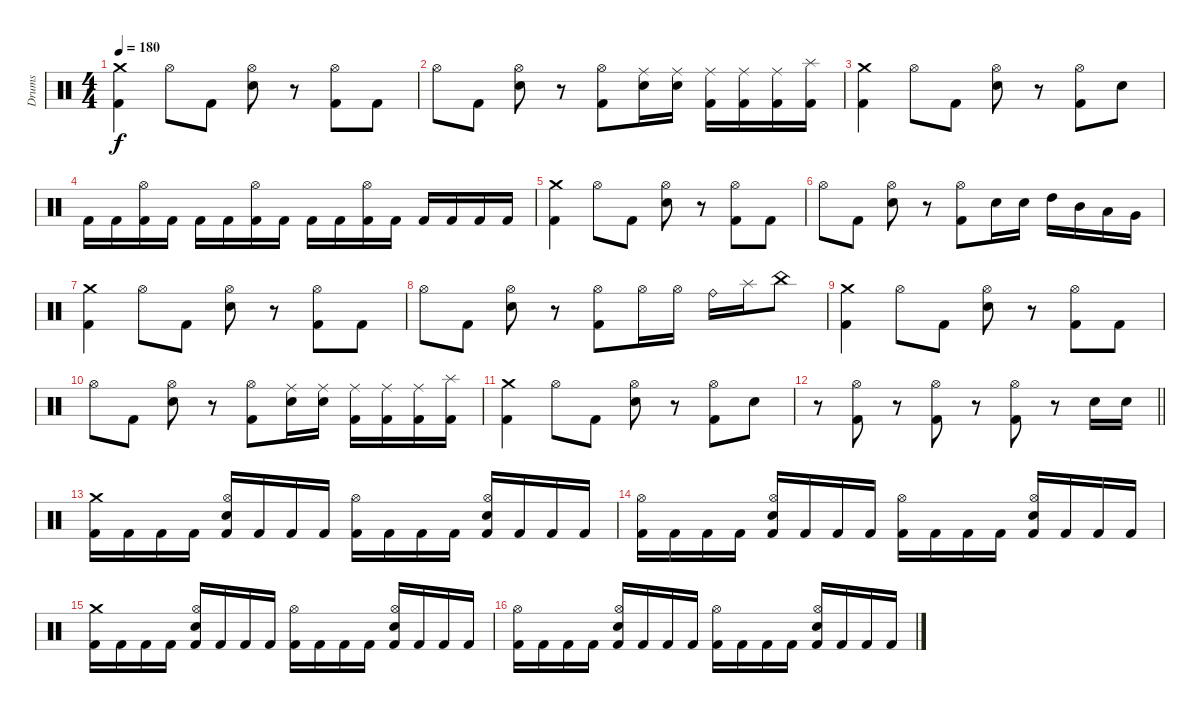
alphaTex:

\track ("Drums" "Drums") {instrument percussion}
\staff {score}
\articulation defaults
\ts (4 4)
\tempo 180
\clef neutral
\ks c
("Crash medium (hit)" "Kick (hit) 2").4{dy f} "Hi-Hat (open)".8 "Kick (hit) 2".8 ("Hi-Hat (open)" "Electric Snare (hit)").8 r.8 ("Hi-Hat (open)" "Kick (hit) 2").8 "Kick (hit) 2".8 |
"Hi-Hat (open)".8 "Kick (hit) 2".8 ("Hi-Hat (open)" "Electric Snare (hit)").8 r.8 ("Hi-Hat (open)" "Kick (hit) 2").8 ("Ride (middle)" "Electric Snare (hit)").16 ("Ride (middle)" "Electric Snare (hit)").16 ("Ride (middle)" "Kick (hit) 2").16 ("Ride (middle)" "Kick (hit) 2").16 ("Ride (middle)" "Kick (hit) 2").16 ("Splash (hit)" "Kick (hit) 2").16 |
("Crash medium (hit)" "Kick (hit) 2").4 "Hi-Hat (open)".8 "Kick (hit) 2".8 ("Hi-Hat (open)" "Electric Snare (hit)").8 r.8 ("Hi-Hat (open)" "Kick (hit) 2").8 "Electric Snare (hit)".8 |
"Kick (hit) 2".16 "Kick (hit) 2".16 ("Hi-Hat (open)" "Kick (hit) 2").16 "Kick (hit) 2".16 "Kick (hit) 2".16 "Kick (hit) 2".16 ("Hi-Hat (open)" "Kick (hit) 2").16 "Kick (hit) 2".16 "Kick (hit) 2".16 "Kick (hit) 2".16 ("Hi-Hat (open)" "Kick (hit) 2").16 "Kick (hit) 2".16 "Kick (hit) 2".16 "Kick (hit) 2".16 "Kick (hit) 2".16 "Kick (hit) 2".16 |
("Crash medium (hit)" "Kick (hit) 2").4 "Hi-Hat (open)".8 "Kick (hit) 2".8 ("Hi-Hat (open)" "Electric Snare (hit)").8 r.8 ("Hi-Hat (open)" "Kick (hit) 2").8 "Kick (hit) 2".8 |
"Hi-Hat (open)".8 "Kick (hit) 2".8 ("Hi-Hat (open)" "Electric Snare (hit)").8 r.8 ("Hi-Hat (open)" "Kick (hit) 2").8 "Electric Snare (hit)".16 "Electric Snare (hit)".16 "High Tom (hit)".16 "Mid Tom (hit)".16 "Low Tom (hit)".16 "Very Low Tom (hit)".16 |
("Crash medium (hit)" "Kick (hit) 2").4 "Hi-Hat (open)".8 "Kick (hit) 2".8 ("Hi-Hat (open)" "Electric Snare (hit)").8 r.8 ("Hi-Hat (open)" "Kick (hit) 2").8 "Kick (hit) 2".8 |
"Hi-Hat (open)".8 "Kick (hit) 2".8 ("Hi-Hat (open)" "Electric Snare (hit)").8 r.8 ("Hi-Hat (open)" "Kick (hit) 2").8 "Hi-Hat (open)".16 "Hi-Hat (open)".16 "Ride (bell)".16 "Splash (hit)".16 "China (hit)".8 |
("Crash medium (hit)" "Kick (hit) 2").4 "Hi-Hat (open)".8 "Kick (hit) 2".8 ("Hi-Hat (open)" "Electric Snare (hit)").8 r.8 ("Hi-Hat (open)" "Kick (hit) 2").8 "Kick (hit) 2".8 |
"Hi-Hat (open)".8 "Kick (hit) 2".8 ("Hi-Hat (open)" "Electric Snare (hit)").8 r.8 ("Hi-Hat (open)" "Kick (hit) 2").8 ("Ride (middle)" "Electric Snare (hit)").16 ("Ride (middle)" "Electric Snare (hit)").16 ("Ride (middle)" "Kick (hit) 2").16 ("Ride (middle)" "Kick (hit) 2").16 ("Ride (middle)" "Kick (hit) 2").16 ("Splash (hit)" "Kick (hit) 2").16 |
("Crash medium (hit)" "Kick (hit) 2").4 "Hi-Hat (open)".8 "Kick (hit) 2".8 ("Hi-Hat (open)" "Electric Snare (hit)").8 r.8 ("Hi-Hat (open)" "Kick (hit) 2").8 "Electric Snare (hit)".8 |
\barLineRight lightlight
r.8 ("Hi-Hat (open)" "Kick (hit) 2").8 r.8 ("Hi-Hat (open)" "Kick (hit) 2").8 r.8 ("Hi-Hat (open)" "Kick (hit) 2").8 r.8 "Electric Snare (hit)".16 "Electric Snare (hit)".16 |
\section ("" "")
("Crash medium (hit)" "Kick (hit) 2").16 "Kick (hit) 2".16 "Kick (hit) 2".16 "Kick (hit) 2".16 ("Hi-Hat (open)" "Electric Snare (hit)" "Kick (hit) 2").16 "Kick (hit) 2".16 "Kick (hit) 2".16 "Kick (hit) 2".16 ("Hi-Hat (open)" "Kick (hit) 2").16 "Kick (hit) 2".16 "Kick (hit) 2".16 "Kick (hit) 2".16 ("Hi-Hat (open)" "Electric Snare (hit)" "Kick (hit) 2").16 "Kick (hit) 2".16 "Kick (hit) 2".16 "Kick (hit) 2".16 |
("Hi-Hat (open)" "Kick (hit) 2").16 "Kick (hit) 2".16 "Kick (hit) 2".16 "Kick (hit) 2".16 ("Hi-Hat (open)" "Electric Snare (hit)" "Kick (hit) 2").16 "Kick (hit) 2".16 "Kick (hit) 2".16 "Kick (hit) 2".16 ("Hi-Hat (open)" "Kick (hit) 2").16 "Kick (hit) 2".16 "Kick (hit) 2".16 "Kick (hit) 2".16 ("Hi-Hat (open)" "Electric Snare (hit)" "Kick (hit) 2").16 "Kick (hit) 2".16 "Kick (hit) 2".16 "Kick (hit) 2".16 |
("Crash medium (hit)" "Kick (hit) 2").16 "Kick (hit) 2".16 "Kick (hit) 2".16 "Kick (hit) 2".16 ("Hi-Hat (open)" "Electric Snare (hit)" "Kick (hit) 2").16 "Kick (hit) 2".16 "Kick (hit) 2".16 "Kick (hit) 2".16 ("Hi-Hat (open)" "Kick (hit) 2").16 "Kick (hit) 2".16 "Kick (hit) 2".16 "Kick (hit) 2".16 ("Hi-Hat (open)" "Electric Snare (hit)" "Kick (hit) 2").16 "Kick (hit) 2".16 "Kick (hit) 2".16 "Kick (hit) 2".16 |
("Hi-Hat (open)" "Kick (hit) 2").16 "Kick (hit) 2".16 "Kick (hit) 2".16 "Kick (hit) 2".16 ("Hi-Hat (open)" "Electric Snare (hit)" "Kick (hit) 2").16 "Kick (hit) 2".16 "Kick (hit) 2".16 "Kick (hit) 2".16 ("Hi-Hat (open)" "Kick (hit) 2").16 "Kick (hit) 2".16 "Kick (hit) 2".16 "Kick (hit) 2".16 ("Hi-Hat (open)" "Electric Snare (hit)" "Kick (hit) 2").16 "Kick (hit) 2".16 "Kick (hit) 2".16 "Kick (hit) 2".16
